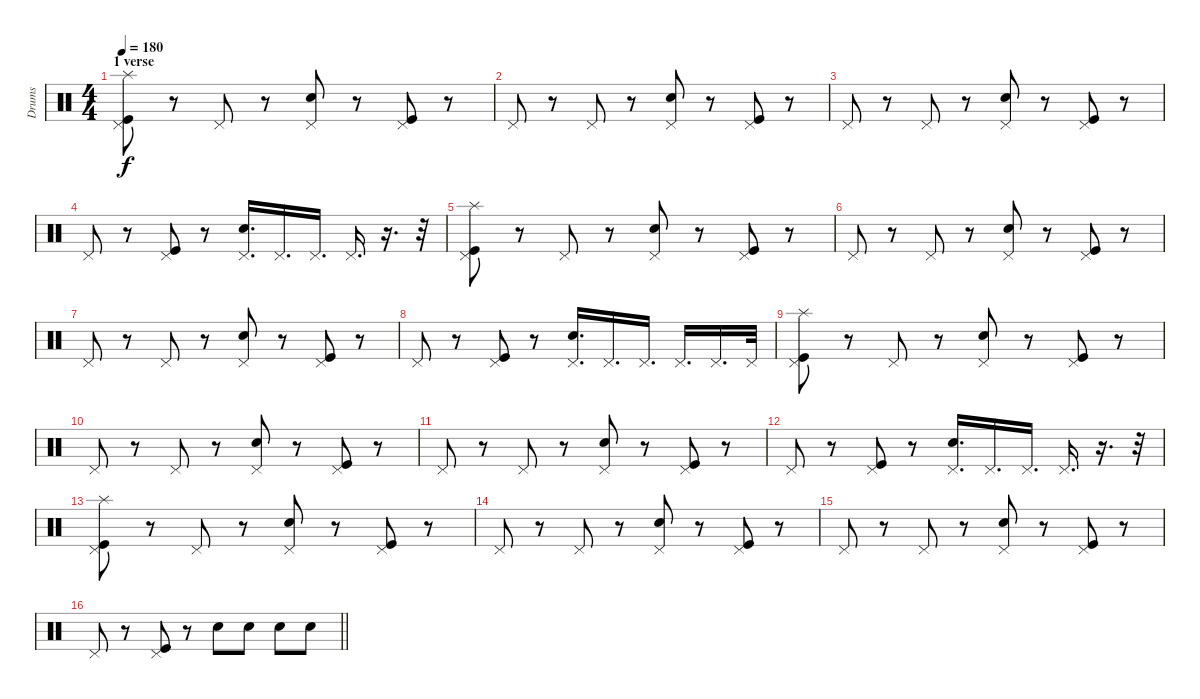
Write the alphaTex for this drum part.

\track ("Drums" "Drums") {instrument percussion}
\staff {score}
\articulation defaults
\ts (4 4)
\section ("" "1 verse")
\tempo 180
\clef neutral
\ks c
("Splash (hit)" "Pedal Hi-Hat (hit)" "Kick (hit)").8{dy f} r.8 "Pedal Hi-Hat (hit)".8 r.8 ("Pedal Hi-Hat (hit)" "Snare (hit) 2").8 r.8 ("Pedal Hi-Hat (hit)" "Kick (hit)").8 r.8 |
"Pedal Hi-Hat (hit)".8 r.8 "Pedal Hi-Hat (hit)".8 r.8 ("Pedal Hi-Hat (hit)" "Snare (hit) 2").8 r.8 ("Pedal Hi-Hat (hit)" "Kick (hit)").8 r.8 |
"Pedal Hi-Hat (hit)".8 r.8 "Pedal Hi-Hat (hit)".8 r.8 ("Pedal Hi-Hat (hit)" "Snare (hit) 2").8 r.8 ("Pedal Hi-Hat (hit)" "Kick (hit)").8 r.8 |
"Pedal Hi-Hat (hit)".8 r.8 ("Pedal Hi-Hat (hit)" "Kick (hit)").8 r.8 ("Pedal Hi-Hat (hit)" "Snare (hit) 2").16{d} "Pedal Hi-Hat (hit)".16{d} "Pedal Hi-Hat (hit)".16{d} "Pedal Hi-Hat (hit)".16{d} r.16{d} r.32 |
("Splash (hit)" "Pedal Hi-Hat (hit)" "Kick (hit)").8 r.8 "Pedal Hi-Hat (hit)".8 r.8 ("Pedal Hi-Hat (hit)" "Snare (hit) 2").8 r.8 ("Pedal Hi-Hat (hit)" "Kick (hit)").8 r.8 |
"Pedal Hi-Hat (hit)".8 r.8 "Pedal Hi-Hat (hit)".8 r.8 ("Pedal Hi-Hat (hit)" "Snare (hit) 2").8 r.8 ("Pedal Hi-Hat (hit)" "Kick (hit)").8 r.8 |
"Pedal Hi-Hat (hit)".8 r.8 "Pedal Hi-Hat (hit)".8 r.8 ("Pedal Hi-Hat (hit)" "Snare (hit) 2").8 r.8 ("Pedal Hi-Hat (hit)" "Kick (hit)").8 r.8 |
"Pedal Hi-Hat (hit)".8 r.8 ("Pedal Hi-Hat (hit)" "Kick (hit)").8 r.8 ("Pedal Hi-Hat (hit)" "Snare (hit) 2").16{d} "Pedal Hi-Hat (hit)".16{d} "Pedal Hi-Hat (hit)".16{d} "Pedal Hi-Hat (hit)".16{d} "Pedal Hi-Hat (hit)".16{d} "Pedal Hi-Hat (hit)".32 |
("Splash (hit)" "Pedal Hi-Hat (hit)" "Kick (hit)").8 r.8 "Pedal Hi-Hat (hit)".8 r.8 ("Pedal Hi-Hat (hit)" "Snare (hit) 2").8 r.8 ("Pedal Hi-Hat (hit)" "Kick (hit)").8 r.8 |
"Pedal Hi-Hat (hit)".8 r.8 "Pedal Hi-Hat (hit)".8 r.8 ("Pedal Hi-Hat (hit)" "Snare (hit) 2").8 r.8 ("Pedal Hi-Hat (hit)" "Kick (hit)").8 r.8 |
"Pedal Hi-Hat (hit)".8 r.8 "Pedal Hi-Hat (hit)".8 r.8 ("Pedal Hi-Hat (hit)" "Snare (hit) 2").8 r.8 ("Pedal Hi-Hat (hit)" "Kick (hit)").8 r.8 |
"Pedal Hi-Hat (hit)".8 r.8 ("Pedal Hi-Hat (hit)" "Kick (hit)").8 r.8 ("Pedal Hi-Hat (hit)" "Snare (hit) 2").16{d} "Pedal Hi-Hat (hit)".16{d} "Pedal Hi-Hat (hit)".16{d} "Pedal Hi-Hat (hit)".16{d} r.16{d} r.32 |
("Splash (hit)" "Pedal Hi-Hat (hit)" "Kick (hit)").8 r.8 "Pedal Hi-Hat (hit)".8 r.8 ("Pedal Hi-Hat (hit)" "Snare (hit) 2").8 r.8 ("Pedal Hi-Hat (hit)" "Kick (hit)").8 r.8 |
"Pedal Hi-Hat (hit)".8 r.8 "Pedal Hi-Hat (hit)".8 r.8 ("Pedal Hi-Hat (hit)" "Snare (hit) 2").8 r.8 ("Pedal Hi-Hat (hit)" "Kick (hit)").8 r.8 |
"Pedal Hi-Hat (hit)".8 r.8 "Pedal Hi-Hat (hit)".8 r.8 ("Pedal Hi-Hat (hit)" "Snare (hit) 2").8 r.8 ("Pedal Hi-Hat (hit)" "Kick (hit)").8 r.8 |
\barLineRight lightlight "Pedal Hi-Hat (hit)".8
r.8 ("Pedal Hi-Hat (hit)" "Kick (hit)").8 r.8 "Snare (hit) 2".8 "Snare (hit) 2".8 "Snare (hit) 2".8 "Snare (hit) 2".8
